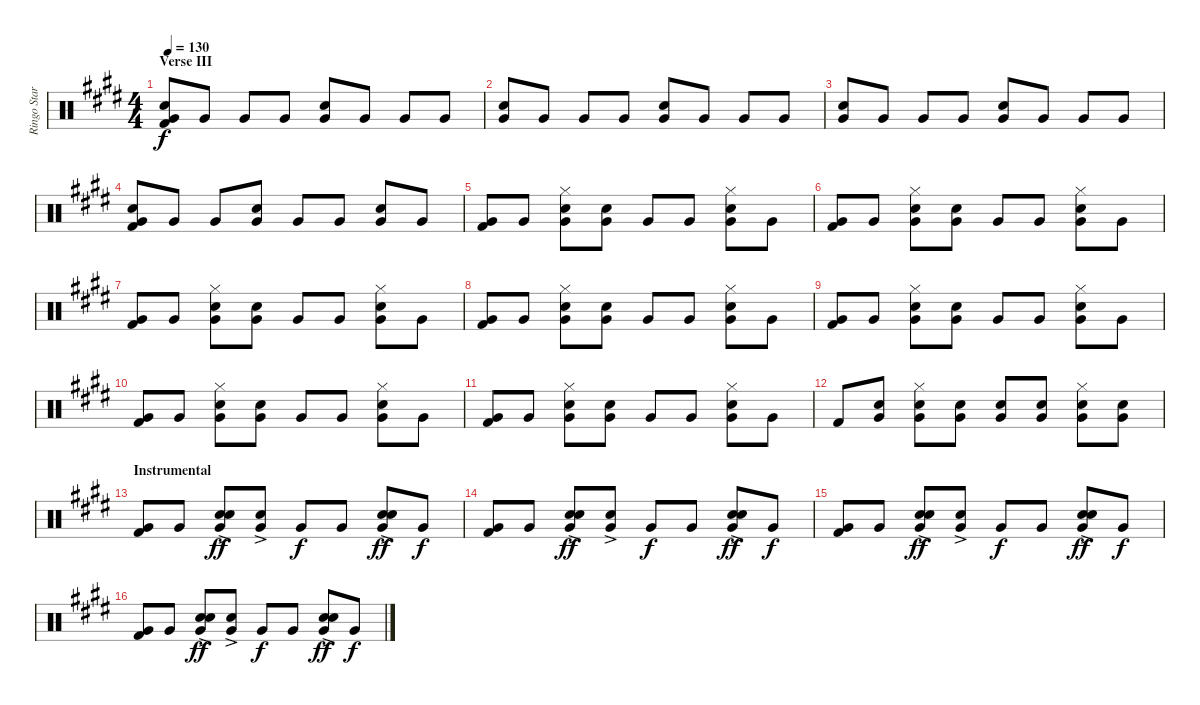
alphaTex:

\track ("Ringo Starr Drums" "Ringo Star") {instrument percussion}
\staff {score}
\articulation defaults
\ts (4 4)
\section ("" "Verse III")
\tempo 130
\clef neutral
\ks e
("Very Low Tom (hit)" "Snare (hit) 2" "Kick (hit) 2").8{dy f} "Very Low Tom (hit)".8 "Very Low Tom (hit)".8 "Very Low Tom (hit)".8 ("Very Low Tom (hit)" "Snare (hit) 2").8 "Very Low Tom (hit)".8 "Very Low Tom (hit)".8 "Very Low Tom (hit)".8 |
("Very Low Tom (hit)" "Snare (hit) 2").8 "Very Low Tom (hit)".8 "Very Low Tom (hit)".8 "Very Low Tom (hit)".8 ("Very Low Tom (hit)" "Snare (hit) 2").8 "Very Low Tom (hit)".8 "Very Low Tom (hit)".8 "Very Low Tom (hit)".8 |
("Very Low Tom (hit)" "Snare (hit) 2").8 "Very Low Tom (hit)".8 "Very Low Tom (hit)".8 "Very Low Tom (hit)".8 ("Very Low Tom (hit)" "Snare (hit) 2").8 "Very Low Tom (hit)".8 "Very Low Tom (hit)".8 "Very Low Tom (hit)".8 |
("Very Low Tom (hit)" "Snare (hit) 2" "Kick (hit) 2").8 "Very Low Tom (hit)".8 "Very Low Tom (hit)".8 ("Very Low Tom (hit)" "Snare (hit) 2").8 "Very Low Tom (hit)".8 "Very Low Tom (hit)".8 ("Very Low Tom (hit)" "Snare (hit) 2").8 "Very Low Tom (hit)".8 |
("Very Low Tom (hit)" "Kick (hit) 2").8 "Very Low Tom (hit)".8 ("Hi-Hat (closed)" "Very Low Tom (hit)" "Snare (hit) 2").8 ("Very Low Tom (hit)" "Snare (hit) 2").8 "Very Low Tom (hit)".8 "Very Low Tom (hit)".8 ("Hi-Hat (closed)" "Very Low Tom (hit)" "Snare (hit) 2").8 "Very Low Tom (hit)".8 |
("Very Low Tom (hit)" "Kick (hit) 2").8 "Very Low Tom (hit)".8 ("Hi-Hat (closed)" "Very Low Tom (hit)" "Snare (hit) 2").8 ("Very Low Tom (hit)" "Snare (hit) 2").8 "Very Low Tom (hit)".8 "Very Low Tom (hit)".8 ("Hi-Hat (closed)" "Very Low Tom (hit)" "Snare (hit) 2").8 "Very Low Tom (hit)".8 |
("Very Low Tom (hit)" "Kick (hit) 2").8 "Very Low Tom (hit)".8 ("Hi-Hat (closed)" "Very Low Tom (hit)" "Snare (hit) 2").8 ("Very Low Tom (hit)" "Snare (hit) 2").8 "Very Low Tom (hit)".8 "Very Low Tom (hit)".8 ("Hi-Hat (closed)" "Very Low Tom (hit)" "Snare (hit) 2").8 "Very Low Tom (hit)".8 |
("Very Low Tom (hit)" "Kick (hit) 2").8 "Very Low Tom (hit)".8 ("Hi-Hat (closed)" "Very Low Tom (hit)" "Snare (hit) 2").8 ("Very Low Tom (hit)" "Snare (hit) 2").8 "Very Low Tom (hit)".8 "Very Low Tom (hit)".8 ("Hi-Hat (closed)" "Very Low Tom (hit)" "Snare (hit) 2").8 "Very Low Tom (hit)".8 |
("Very Low Tom (hit)" "Kick (hit) 2").8 "Very Low Tom (hit)".8 ("Hi-Hat (closed)" "Very Low Tom (hit)" "Snare (hit) 2").8 ("Very Low Tom (hit)" "Snare (hit) 2").8 "Very Low Tom (hit)".8 "Very Low Tom (hit)".8 ("Hi-Hat (closed)" "Very Low Tom (hit)" "Snare (hit) 2").8 "Very Low Tom (hit)".8 |
("Very Low Tom (hit)" "Kick (hit) 2").8 "Very Low Tom (hit)".8 ("Hi-Hat (closed)" "Very Low Tom (hit)" "Snare (hit) 2").8 ("Very Low Tom (hit)" "Snare (hit) 2").8 "Very Low Tom (hit)".8 "Very Low Tom (hit)".8 ("Hi-Hat (closed)" "Very Low Tom (hit)" "Snare (hit) 2").8 "Very Low Tom (hit)".8 |
("Very Low Tom (hit)" "Kick (hit) 2").8 "Very Low Tom (hit)".8 ("Hi-Hat (closed)" "Very Low Tom (hit)" "Snare (hit) 2").8 ("Very Low Tom (hit)" "Snare (hit) 2").8 "Very Low Tom (hit)".8 "Very Low Tom (hit)".8 ("Hi-Hat (closed)" "Very Low Tom (hit)" "Snare (hit) 2").8 "Very Low Tom (hit)".8 |
"Kick (hit) 2".8 ("Very Low Tom (hit)" "Snare (hit) 2").8 ("Hi-Hat (closed)" "Very Low Tom (hit)" "Snare (hit) 2").8 ("Very Low Tom (hit)" "Snare (hit) 2").8 ("Very Low Tom (hit)" "Snare (hit) 2").8 ("Very Low Tom (hit)" "Snare (hit) 2").8 ("Hi-Hat (closed)" "Very Low Tom (hit)" "Snare (hit) 2").8 ("Very Low Tom (hit)" "Snare (hit) 2").8 |
\section ("" "Instrumental")
("Very Low Tom (hit)" "Kick (hit) 2").8 "Very Low Tom (hit)".8 ("Hand Clap (hit)" "Very Low Tom (hit)" "Snare (hit) 2"{ac}).8{dy ff} ("Very Low Tom (hit)" "Snare (hit) 2"{ac}).8 "Very Low Tom (hit)".8{dy f} "Very Low Tom (hit)".8 ("Hand Clap (hit)" "Very Low Tom (hit)" "Snare (hit) 2"{ac}).8{dy ff} "Very Low Tom (hit)".8{dy f} |
("Very Low Tom (hit)" "Kick (hit) 2").8 "Very Low Tom (hit)".8 ("Hand Clap (hit)" "Very Low Tom (hit)" "Snare (hit) 2"{ac}).8{dy ff} ("Very Low Tom (hit)" "Snare (hit) 2"{ac}).8 "Very Low Tom (hit)".8{dy f} "Very Low Tom (hit)".8 ("Hand Clap (hit)" "Very Low Tom (hit)" "Snare (hit) 2"{ac}).8{dy ff} "Very Low Tom (hit)".8{dy f} |
("Very Low Tom (hit)" "Kick (hit) 2").8 "Very Low Tom (hit)".8 ("Hand Clap (hit)" "Very Low Tom (hit)" "Snare (hit) 2"{ac}).8{dy ff} ("Very Low Tom (hit)" "Snare (hit) 2"{ac}).8 "Very Low Tom (hit)".8{dy f} "Very Low Tom (hit)".8 ("Hand Clap (hit)" "Very Low Tom (hit)" "Snare (hit) 2"{ac}).8{dy ff} "Very Low Tom (hit)".8{dy f} |
("Very Low Tom (hit)" "Kick (hit) 2").8 "Very Low Tom (hit)".8 ("Hand Clap (hit)" "Very Low Tom (hit)" "Snare (hit) 2"{ac}).8{dy ff} ("Very Low Tom (hit)" "Snare (hit) 2"{ac}).8 "Very Low Tom (hit)".8{dy f} "Very Low Tom (hit)".8 ("Hand Clap (hit)" "Very Low Tom (hit)" "Snare (hit) 2"{ac}).8{dy ff} "Very Low Tom (hit)".8{dy f}
